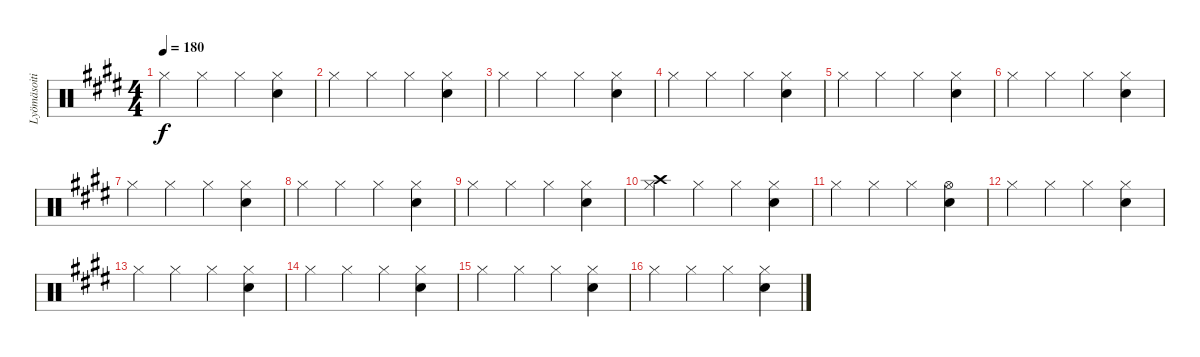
\track ("Lyömäsoitin" "Lyömäsoiti") {instrument percussion}
\staff {score}
\articulation defaults
\ts (4 4)
\tempo 180
\clef neutral
\ks e "Hi-Hat (closed)".4{dy f} "Hi-Hat (closed)".4 "Hi-Hat (closed)".4
("Hi-Hat (closed)" "Electric Snare (hit)").4 |
"Hi-Hat (closed)".4 "Hi-Hat (closed)".4 "Hi-Hat (closed)".4 ("Hi-Hat (closed)" "Electric Snare (hit)").4 |
"Hi-Hat (closed)".4 "Hi-Hat (closed)".4 "Hi-Hat (closed)".4 ("Hi-Hat (closed)" "Electric Snare (hit)").4 |
"Hi-Hat (closed)".4 "Hi-Hat (closed)".4 "Hi-Hat (closed)".4 ("Hi-Hat (closed)" "Electric Snare (hit)").4 |
"Hi-Hat (closed)".4 "Hi-Hat (closed)".4 "Hi-Hat (closed)".4 ("Hi-Hat (closed)" "Electric Snare (hit)").4 |
"Hi-Hat (closed)".4 "Hi-Hat (closed)".4 "Hi-Hat (closed)".4 ("Hi-Hat (closed)" "Electric Snare (hit)").4 |
"Hi-Hat (closed)".4 "Hi-Hat (closed)".4 "Hi-Hat (closed)".4 ("Hi-Hat (closed)" "Electric Snare (hit)").4 |
"Hi-Hat (closed)".4 "Hi-Hat (closed)".4 "Hi-Hat (closed)".4 ("Hi-Hat (closed)" "Electric Snare (hit)").4 |
"Hi-Hat (closed)".4 "Hi-Hat (closed)".4 "Hi-Hat (closed)".4 ("Hi-Hat (closed)" "Electric Snare (hit)").4 |
("Crash high (hit)" "Hi-Hat (closed)").4 "Hi-Hat (closed)".4 "Hi-Hat (closed)".4 ("Hi-Hat (closed)" "Electric Snare (hit)").4 |
"Hi-Hat (closed)".4 "Hi-Hat (closed)".4 "Hi-Hat (closed)".4 ("Hi-Hat (open)" "Electric Snare (hit)").4 |
"Hi-Hat (closed)".4 "Hi-Hat (closed)".4 "Hi-Hat (closed)".4 ("Hi-Hat (closed)" "Electric Snare (hit)").4 |
"Hi-Hat (closed)".4 "Hi-Hat (closed)".4 "Hi-Hat (closed)".4 ("Hi-Hat (closed)" "Electric Snare (hit)").4 |
"Hi-Hat (closed)".4 "Hi-Hat (closed)".4 "Hi-Hat (closed)".4 ("Hi-Hat (closed)" "Electric Snare (hit)").4 |
"Hi-Hat (closed)".4 "Hi-Hat (closed)".4 "Hi-Hat (closed)".4 ("Hi-Hat (closed)" "Electric Snare (hit)").4 |
"Hi-Hat (closed)".4 "Hi-Hat (closed)".4 "Hi-Hat (closed)".4 ("Hi-Hat (closed)" "Electric Snare (hit)").4
